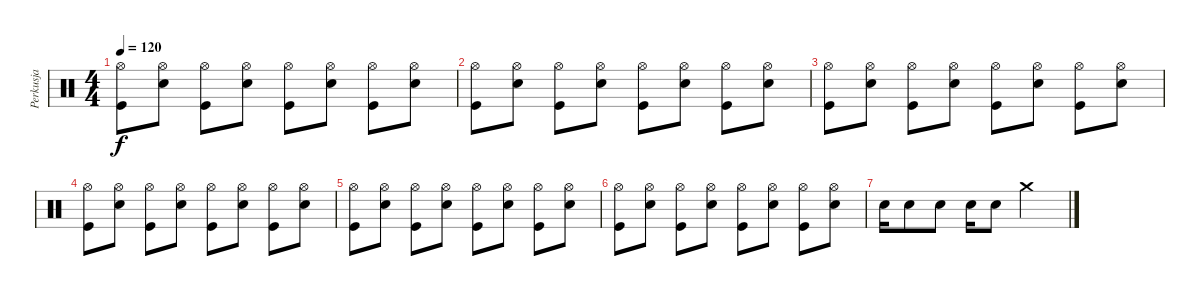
\track ("Perkusja" "Perkusja") {instrument percussion}
\staff {score}
\articulation defaults
\ts (4 4)
\tempo 120
\clef neutral
\ks c
("Kick (hit)" "Hi-Hat (open)").8{dy f} ("Snare (hit) 2" "Hi-Hat (open)").8 ("Kick (hit)" "Hi-Hat (open)").8 ("Snare (hit) 2" "Hi-Hat (open)").8 ("Kick (hit)" "Hi-Hat (open)").8 ("Snare (hit) 2" "Hi-Hat (open)").8 ("Kick (hit)" "Hi-Hat (open)").8 ("Snare (hit) 2" "Hi-Hat (open)").8 |
("Kick (hit)" "Hi-Hat (open)").8 ("Snare (hit) 2" "Hi-Hat (open)").8 ("Kick (hit)" "Hi-Hat (open)").8 ("Snare (hit) 2" "Hi-Hat (open)").8 ("Kick (hit)" "Hi-Hat (open)").8 ("Snare (hit) 2" "Hi-Hat (open)").8 ("Kick (hit)" "Hi-Hat (open)").8 ("Snare (hit) 2" "Hi-Hat (open)").8 |
("Kick (hit)" "Hi-Hat (open)").8 ("Snare (hit) 2" "Hi-Hat (open)").8 ("Kick (hit)" "Hi-Hat (open)").8 ("Snare (hit) 2" "Hi-Hat (open)").8 ("Kick (hit)" "Hi-Hat (open)").8 ("Snare (hit) 2" "Hi-Hat (open)").8 ("Kick (hit)" "Hi-Hat (open)").8 ("Snare (hit) 2" "Hi-Hat (open)").8 |
("Kick (hit)" "Hi-Hat (open)").8 ("Snare (hit) 2" "Hi-Hat (open)").8 ("Kick (hit)" "Hi-Hat (open)").8 ("Snare (hit) 2" "Hi-Hat (open)").8 ("Kick (hit)" "Hi-Hat (open)").8 ("Snare (hit) 2" "Hi-Hat (open)").8 ("Kick (hit)" "Hi-Hat (open)").8 ("Snare (hit) 2" "Hi-Hat (open)").8 |
("Kick (hit)" "Hi-Hat (open)").8 ("Snare (hit) 2" "Hi-Hat (open)").8 ("Kick (hit)" "Hi-Hat (open)").8 ("Snare (hit) 2" "Hi-Hat (open)").8 ("Kick (hit)" "Hi-Hat (open)").8 ("Snare (hit) 2" "Hi-Hat (open)").8 ("Kick (hit)" "Hi-Hat (open)").8 ("Snare (hit) 2" "Hi-Hat (open)").8 |
("Kick (hit)" "Hi-Hat (open)").8 ("Snare (hit) 2" "Hi-Hat (open)").8 ("Kick (hit)" "Hi-Hat (open)").8 ("Snare (hit) 2" "Hi-Hat (open)").8 ("Kick (hit)" "Hi-Hat (open)").8 ("Snare (hit) 2" "Hi-Hat (open)").8 ("Kick (hit)" "Hi-Hat (open)").8 ("Snare (hit) 2" "Hi-Hat (open)").8 |
"Snare (hit) 2".16 "Snare (hit) 2".8 "Snare (hit) 2".8 "Snare (hit) 2".16 "Snare (hit) 2".8 "Crash medium (hit)".2
